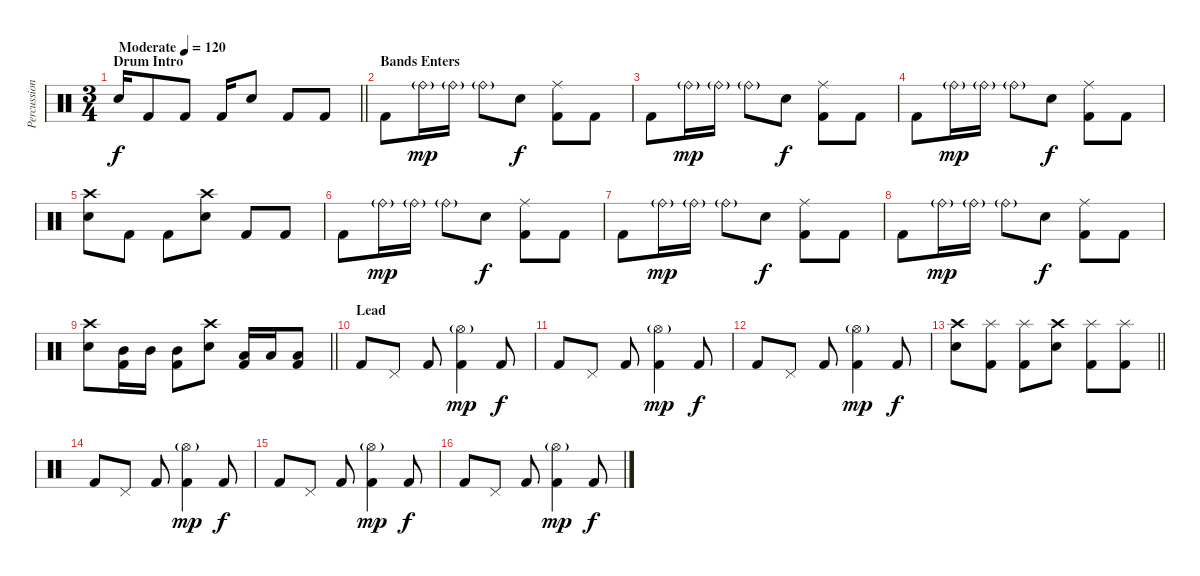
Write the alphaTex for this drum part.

\track ("Percussion" "Percussion") {instrument percussion}
\staff {score}
\articulation defaults
\ts (3 4)
\section ("" "Drum Intro")
\tempo (120 "Moderate")
\clef neutral
\barLineRight lightlight
\ks c "Electric Snare (hit)".16{dy f} "Kick (hit) 2".8 "Kick (hit) 2".8 "Kick (hit) 2".16 "Electric Snare (hit)".8 "Kick (hit) 2".8 "Kick (hit) 2".8
|
\section ("" "Bands Enters")
"Kick (hit) 2".8 "Ride (bell)"{g}.16{dy mp} "Ride (bell)"{g}.16 "Ride (bell)"{g}.8 "Electric Snare (hit)".8{dy f} ("Ride (middle)" "Kick (hit) 2").8 "Kick (hit) 2".8 |
"Kick (hit) 2".8 "Ride (bell)"{g}.16{dy mp} "Ride (bell)"{g}.16 "Ride (bell)"{g}.8 "Electric Snare (hit)".8{dy f} ("Ride (middle)" "Kick (hit) 2").8 "Kick (hit) 2".8 |
"Kick (hit) 2".8 "Ride (bell)"{g}.16{dy mp} "Ride (bell)"{g}.16 "Ride (bell)"{g}.8 "Electric Snare (hit)".8{dy f} ("Ride (middle)" "Kick (hit) 2").8 "Kick (hit) 2".8 |
("Crash high (hit)" "Electric Snare (hit)").8 "Kick (hit) 2".8 "Kick (hit) 2".8 ("Crash high (hit)" "Electric Snare (hit)").8 "Kick (hit) 2".8 "Kick (hit) 2".8 |
"Kick (hit) 2".8 "Ride (bell)"{g}.16{dy mp} "Ride (bell)"{g}.16 "Ride (bell)"{g}.8 "Electric Snare (hit)".8{dy f} ("Ride (middle)" "Kick (hit) 2").8 "Kick (hit) 2".8 |
"Kick (hit) 2".8 "Ride (bell)"{g}.16{dy mp} "Ride (bell)"{g}.16 "Ride (bell)"{g}.8 "Electric Snare (hit)".8{dy f} ("Ride (middle)" "Kick (hit) 2").8 "Kick (hit) 2".8 |
"Kick (hit) 2".8 "Ride (bell)"{g}.16{dy mp} "Ride (bell)"{g}.16 "Ride (bell)"{g}.8 "Electric Snare (hit)".8{dy f} ("Ride (middle)" "Kick (hit) 2").8 "Kick (hit) 2".8 |
\barLineRight lightlight
("Crash high (hit)" "Electric Snare (hit)").8 ("Mid Tom (hit)" "Kick (hit) 2").16 "Mid Tom (hit)".16 ("Mid Tom (hit)" "Kick (hit) 2").8 ("Crash high (hit)" "Electric Snare (hit)").8 ("Low Tom (hit)" "Kick (hit) 2").16 "Low Tom (hit)".16 ("Low Tom (hit)" "Kick (hit) 2").8 |
\section ("" "Lead")
"Kick (hit) 2".8 "Pedal Hi-Hat (hit)".8 "Kick (hit) 2".8 ("Hi-Hat (open)"{g} "Kick (hit) 2").4{dy mp} "Kick (hit) 2".8{dy f} |
"Kick (hit) 2".8 "Pedal Hi-Hat (hit)".8 "Kick (hit) 2".8 ("Hi-Hat (open)"{g} "Kick (hit) 2").4{dy mp} "Kick (hit) 2".8{dy f} |
"Kick (hit) 2".8 "Pedal Hi-Hat (hit)".8 "Kick (hit) 2".8 ("Hi-Hat (open)"{g} "Kick (hit) 2").4{dy mp} "Kick (hit) 2".8{dy f} |
\barLineRight lightlight
("Crash high (hit)" "Electric Snare (hit)").8 ("Splash (hit)" "Kick (hit) 2").8 ("Splash (hit)" "Kick (hit) 2").8 ("Crash high (hit)" "Electric Snare (hit)").8 ("Splash (hit)" "Kick (hit) 2").8 ("Splash (hit)" "Kick (hit) 2").8 |
"Kick (hit) 2".8 "Pedal Hi-Hat (hit)".8 "Kick (hit) 2".8 ("Hi-Hat (open)"{g} "Kick (hit) 2").4{dy mp} "Kick (hit) 2".8{dy f} |
"Kick (hit) 2".8 "Pedal Hi-Hat (hit)".8 "Kick (hit) 2".8 ("Hi-Hat (open)"{g} "Kick (hit) 2").4{dy mp} "Kick (hit) 2".8{dy f} |
"Kick (hit) 2".8 "Pedal Hi-Hat (hit)".8 "Kick (hit) 2".8 ("Hi-Hat (open)"{g} "Kick (hit) 2").4{dy mp} "Kick (hit) 2".8{dy f}
